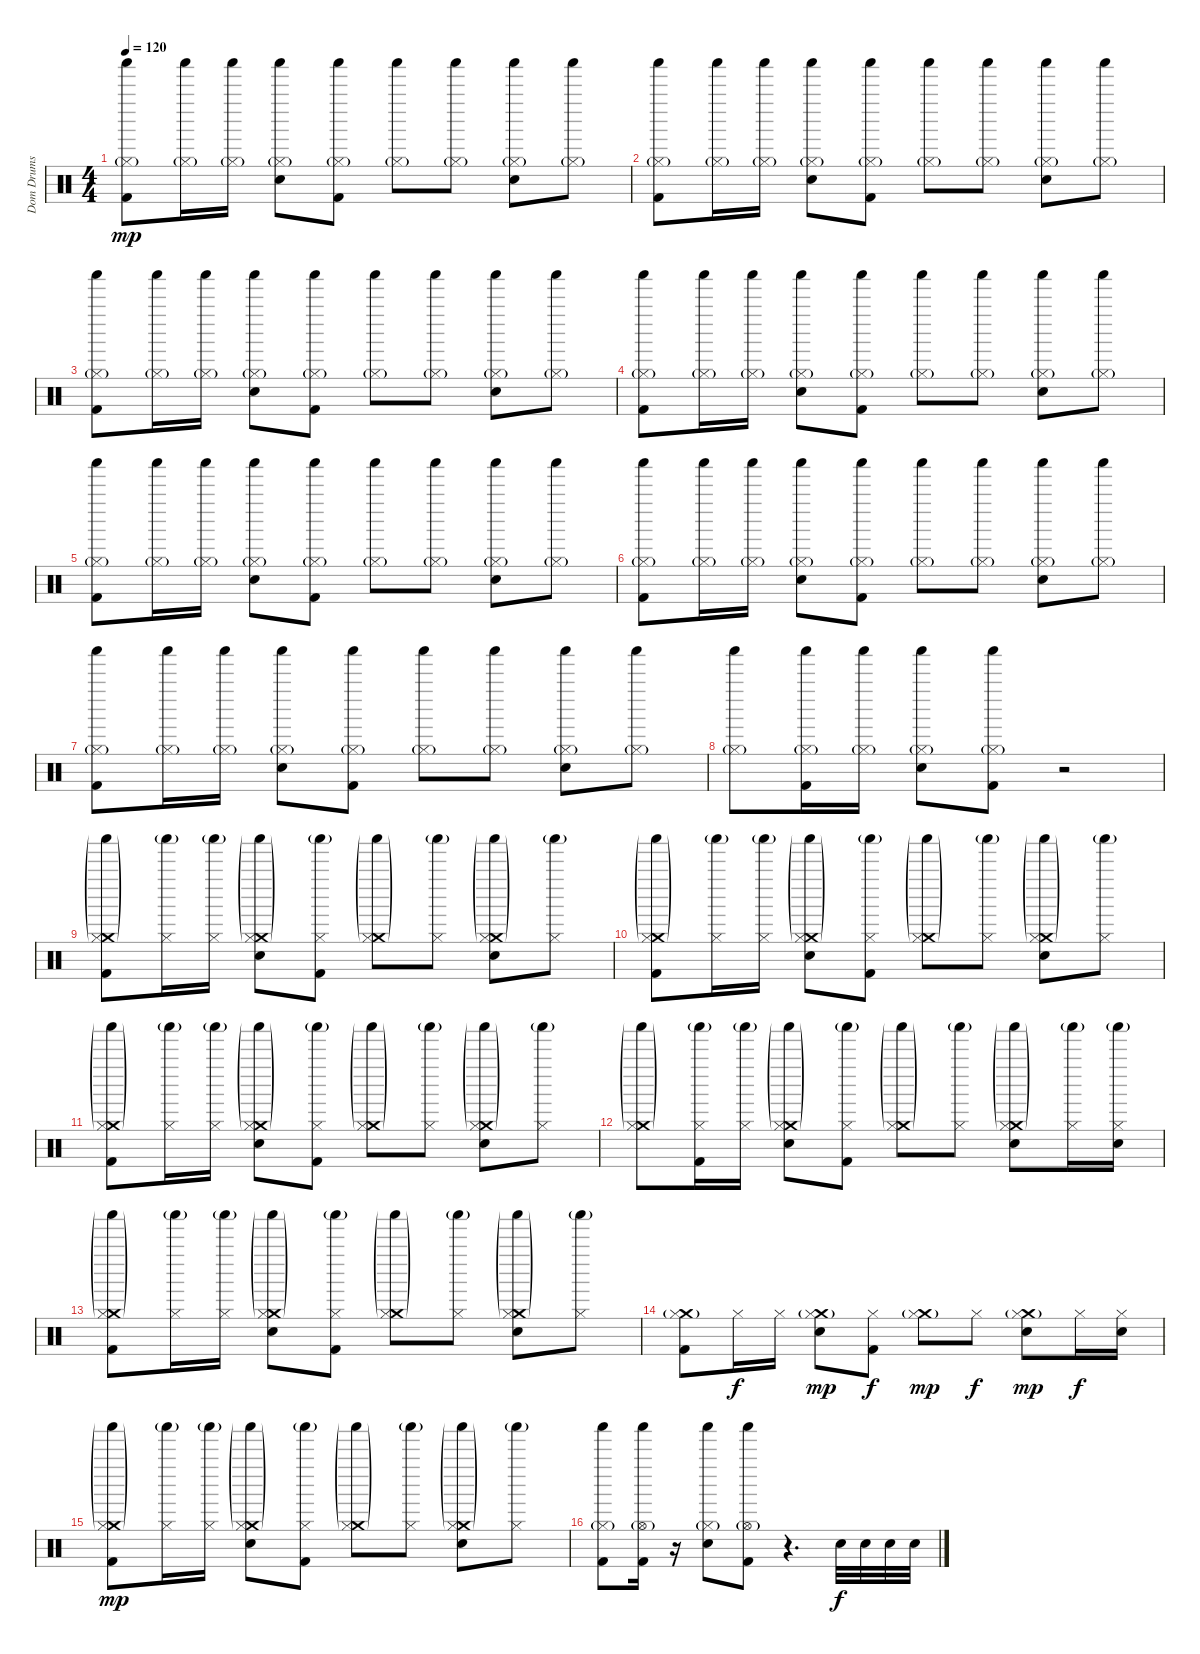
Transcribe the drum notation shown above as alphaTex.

\track ("Dom Drums" "Dom Drums") {instrument percussion}
\staff {score}
\articulation defaults
\ts (4 4)
\tempo 120
\clef neutral
\ks c
("Shaker (hit)" "Hi-Hat (closed)"{g} "Kick (hit) 2").8{dy mp} ("Shaker (hit)" "Hi-Hat (closed)"{g}).16 ("Shaker (hit)" "Hi-Hat (closed)"{g}).16 ("Shaker (hit)" "Hi-Hat (closed)"{g} "Electric Snare (hit)").8 ("Shaker (hit)" "Hi-Hat (closed)"{g} "Kick (hit) 2").8 ("Shaker (hit)" "Hi-Hat (closed)"{g}).8 ("Shaker (hit)" "Hi-Hat (closed)"{g}).8 ("Shaker (hit)" "Hi-Hat (closed)"{g} "Electric Snare (hit)").8 ("Shaker (hit)" "Hi-Hat (closed)"{g}).8 |
("Shaker (hit)" "Hi-Hat (closed)"{g} "Kick (hit) 2").8 ("Shaker (hit)" "Hi-Hat (closed)"{g}).16 ("Shaker (hit)" "Hi-Hat (closed)"{g}).16 ("Shaker (hit)" "Hi-Hat (closed)"{g} "Electric Snare (hit)").8 ("Shaker (hit)" "Hi-Hat (closed)"{g} "Kick (hit) 2").8 ("Shaker (hit)" "Hi-Hat (closed)"{g}).8 ("Shaker (hit)" "Hi-Hat (closed)"{g}).8 ("Shaker (hit)" "Hi-Hat (closed)"{g} "Electric Snare (hit)").8 ("Shaker (hit)" "Hi-Hat (closed)"{g}).8 |
("Shaker (hit)" "Hi-Hat (closed)"{g} "Kick (hit) 2").8 ("Shaker (hit)" "Hi-Hat (closed)"{g}).16 ("Shaker (hit)" "Hi-Hat (closed)"{g}).16 ("Shaker (hit)" "Hi-Hat (closed)"{g} "Electric Snare (hit)").8 ("Shaker (hit)" "Hi-Hat (closed)"{g} "Kick (hit) 2").8 ("Shaker (hit)" "Hi-Hat (closed)"{g}).8 ("Shaker (hit)" "Hi-Hat (closed)"{g}).8 ("Shaker (hit)" "Hi-Hat (closed)"{g} "Electric Snare (hit)").8 ("Shaker (hit)" "Hi-Hat (closed)"{g}).8 |
("Shaker (hit)" "Hi-Hat (closed)"{g} "Kick (hit) 2").8 ("Shaker (hit)" "Hi-Hat (closed)"{g}).16 ("Shaker (hit)" "Hi-Hat (closed)"{g}).16 ("Shaker (hit)" "Hi-Hat (closed)"{g} "Electric Snare (hit)").8 ("Shaker (hit)" "Hi-Hat (closed)"{g} "Kick (hit) 2").8 ("Shaker (hit)" "Hi-Hat (closed)"{g}).8 ("Shaker (hit)" "Hi-Hat (closed)"{g}).8 ("Shaker (hit)" "Hi-Hat (closed)"{g} "Electric Snare (hit)").8 ("Shaker (hit)" "Hi-Hat (closed)"{g}).8 |
("Shaker (hit)" "Hi-Hat (closed)"{g} "Kick (hit) 2").8 ("Shaker (hit)" "Hi-Hat (closed)"{g}).16 ("Shaker (hit)" "Hi-Hat (closed)"{g}).16 ("Shaker (hit)" "Hi-Hat (closed)"{g} "Electric Snare (hit)").8 ("Shaker (hit)" "Hi-Hat (closed)"{g} "Kick (hit) 2").8 ("Shaker (hit)" "Hi-Hat (closed)"{g}).8 ("Shaker (hit)" "Hi-Hat (closed)"{g}).8 ("Shaker (hit)" "Hi-Hat (closed)"{g} "Electric Snare (hit)").8 ("Shaker (hit)" "Hi-Hat (closed)"{g}).8 |
("Shaker (hit)" "Hi-Hat (closed)"{g} "Kick (hit) 2").8 ("Shaker (hit)" "Hi-Hat (closed)"{g}).16 ("Shaker (hit)" "Hi-Hat (closed)"{g}).16 ("Shaker (hit)" "Hi-Hat (closed)"{g} "Electric Snare (hit)").8 ("Shaker (hit)" "Hi-Hat (closed)"{g} "Kick (hit) 2").8 ("Shaker (hit)" "Hi-Hat (closed)"{g}).8 ("Shaker (hit)" "Hi-Hat (closed)"{g}).8 ("Shaker (hit)" "Hi-Hat (closed)"{g} "Electric Snare (hit)").8 ("Shaker (hit)" "Hi-Hat (closed)"{g}).8 |
("Shaker (hit)" "Hi-Hat (closed)"{g} "Kick (hit) 2").8 ("Shaker (hit)" "Hi-Hat (closed)"{g}).16 ("Shaker (hit)" "Hi-Hat (closed)"{g}).16 ("Shaker (hit)" "Hi-Hat (closed)"{g} "Electric Snare (hit)").8 ("Shaker (hit)" "Hi-Hat (closed)"{g} "Kick (hit) 2").8 ("Shaker (hit)" "Hi-Hat (closed)"{g}).8 ("Shaker (hit)" "Hi-Hat (closed)"{g}).8 ("Shaker (hit)" "Hi-Hat (closed)"{g} "Electric Snare (hit)").8 ("Shaker (hit)" "Hi-Hat (closed)"{g}).8 |
("Shaker (hit)" "Hi-Hat (closed)"{g}).8 ("Shaker (hit)" "Hi-Hat (closed)"{g} "Kick (hit) 2").16 ("Shaker (hit)" "Hi-Hat (closed)"{g}).16 ("Shaker (hit)" "Hi-Hat (closed)"{g} "Electric Snare (hit)").8 ("Shaker (hit)" "Hi-Hat (closed)"{g} "Kick (hit) 2").8 r.2 |
("Crash medium (hit)"{g} "Hi-Hat (closed)" "Shaker (hit)"{g} "Kick (hit) 2").8 ("Hi-Hat (closed)" "Shaker (hit)"{g}).16 ("Hi-Hat (closed)" "Shaker (hit)"{g}).16 ("Crash medium (hit)"{g} "Hi-Hat (closed)" "Shaker (hit)"{g} "Electric Snare (hit)").8 ("Hi-Hat (closed)" "Shaker (hit)"{g} "Kick (hit) 2").8 ("Crash medium (hit)"{g} "Hi-Hat (closed)" "Shaker (hit)"{g}).8 ("Hi-Hat (closed)" "Shaker (hit)"{g}).8 ("Crash medium (hit)"{g} "Hi-Hat (closed)"{g} "Shaker (hit)"{g} "Electric Snare (hit)").8 ("Hi-Hat (closed)" "Shaker (hit)"{g}).8 |
("Crash medium (hit)"{g} "Hi-Hat (closed)" "Shaker (hit)"{g} "Kick (hit) 2").8 ("Hi-Hat (closed)" "Shaker (hit)"{g}).16 ("Hi-Hat (closed)" "Shaker (hit)"{g}).16 ("Crash medium (hit)"{g} "Hi-Hat (closed)" "Shaker (hit)"{g} "Electric Snare (hit)").8 ("Hi-Hat (closed)" "Shaker (hit)"{g} "Kick (hit) 2").8 ("Crash medium (hit)"{g} "Hi-Hat (closed)" "Shaker (hit)"{g}).8 ("Hi-Hat (closed)" "Shaker (hit)"{g}).8 ("Crash medium (hit)"{g} "Hi-Hat (closed)" "Shaker (hit)"{g} "Electric Snare (hit)").8 ("Hi-Hat (closed)" "Shaker (hit)"{g}).8 |
("Crash medium (hit)"{g} "Hi-Hat (closed)" "Shaker (hit)"{g} "Kick (hit) 2").8 ("Hi-Hat (closed)" "Shaker (hit)"{g}).16 ("Hi-Hat (closed)" "Shaker (hit)"{g}).16 ("Crash medium (hit)"{g} "Hi-Hat (closed)" "Shaker (hit)"{g} "Electric Snare (hit)").8 ("Hi-Hat (closed)" "Shaker (hit)"{g} "Kick (hit) 2").8 ("Crash medium (hit)"{g} "Hi-Hat (closed)" "Shaker (hit)"{g}).8 ("Hi-Hat (closed)" "Shaker (hit)"{g}).8 ("Crash medium (hit)"{g} "Hi-Hat (closed)" "Shaker (hit)"{g} "Electric Snare (hit)").8 ("Hi-Hat (closed)" "Shaker (hit)"{g}).8 |
("Crash medium (hit)"{g} "Hi-Hat (closed)" "Shaker (hit)"{g}).8 ("Hi-Hat (closed)" "Shaker (hit)"{g} "Kick (hit) 2").16 ("Hi-Hat (closed)" "Shaker (hit)"{g}).16 ("Crash medium (hit)"{g} "Hi-Hat (closed)" "Shaker (hit)"{g} "Electric Snare (hit)").8 ("Hi-Hat (closed)" "Shaker (hit)"{g} "Kick (hit) 2").8 ("Crash medium (hit)"{g} "Hi-Hat (closed)" "Shaker (hit)"{g}).8 ("Hi-Hat (closed)" "Shaker (hit)"{g}).8 ("Crash medium (hit)"{g} "Hi-Hat (closed)" "Shaker (hit)"{g} "Electric Snare (hit)").8 ("Hi-Hat (closed)" "Shaker (hit)"{g}).16 ("Hi-Hat (closed)" "Shaker (hit)"{g} "Electric Snare (hit)").16 |
("Crash medium (hit)"{g} "Hi-Hat (closed)" "Shaker (hit)"{g} "Kick (hit) 2").8 ("Hi-Hat (closed)" "Shaker (hit)"{g}).16 ("Hi-Hat (closed)" "Shaker (hit)"{g}).16 ("Crash medium (hit)"{g} "Hi-Hat (closed)" "Shaker (hit)"{g} "Electric Snare (hit)").8 ("Hi-Hat (closed)" "Shaker (hit)"{g} "Kick (hit) 2").8 ("Crash medium (hit)"{g} "Hi-Hat (closed)" "Shaker (hit)"{g}).8 ("Hi-Hat (closed)" "Shaker (hit)"{g}).8 ("Crash medium (hit)"{g} "Hi-Hat (closed)" "Shaker (hit)"{g} "Electric Snare (hit)").8 ("Hi-Hat (closed)" "Shaker (hit)"{g}).8 |
("Crash medium (hit)"{g} "Hi-Hat (closed)" "Kick (hit) 2").8 "Hi-Hat (closed)".16{dy f} "Hi-Hat (closed)".16 ("Crash medium (hit)"{g} "Hi-Hat (closed)" "Electric Snare (hit)").8{dy mp} ("Hi-Hat (closed)" "Kick (hit) 2").8{dy f} ("Crash medium (hit)"{g} "Hi-Hat (closed)").8{dy mp} "Hi-Hat (closed)".8{dy f} ("Crash medium (hit)"{g} "Hi-Hat (closed)" "Electric Snare (hit)").8{dy mp} "Hi-Hat (closed)".16{dy f} ("Hi-Hat (closed)" "Electric Snare (hit)").16 |
("Crash medium (hit)"{g} "Hi-Hat (closed)" "Shaker (hit)"{g} "Kick (hit) 2").8{dy mp} ("Hi-Hat (closed)" "Shaker (hit)"{g}).16 ("Hi-Hat (closed)" "Shaker (hit)"{g}).16 ("Crash medium (hit)"{g} "Hi-Hat (closed)" "Shaker (hit)"{g} "Electric Snare (hit)").8 ("Hi-Hat (closed)" "Shaker (hit)"{g} "Kick (hit) 2").8 ("Crash medium (hit)"{g} "Hi-Hat (closed)" "Shaker (hit)"{g}).8 ("Hi-Hat (closed)" "Shaker (hit)"{g}).8 ("Crash medium (hit)"{g} "Hi-Hat (closed)" "Shaker (hit)"{g} "Electric Snare (hit)").8 ("Hi-Hat (closed)" "Shaker (hit)"{g}).8 |
("Shaker (hit)" "Hi-Hat (closed)"{g} "Kick (hit) 2").8 ("Shaker (hit)" "Hi-Hat (open)"{g} "Kick (hit) 2").16 r.16 ("Shaker (hit)" "Hi-Hat (closed)"{g} "Electric Snare (hit)").8 ("Shaker (hit)" "Hi-Hat (open)"{g} "Kick (hit) 2").8 r.4{d} "Hand Clap (hit)".32{dy f} "Hand Clap (hit)".32 "Hand Clap (hit)".32 "Hand Clap (hit)".32
